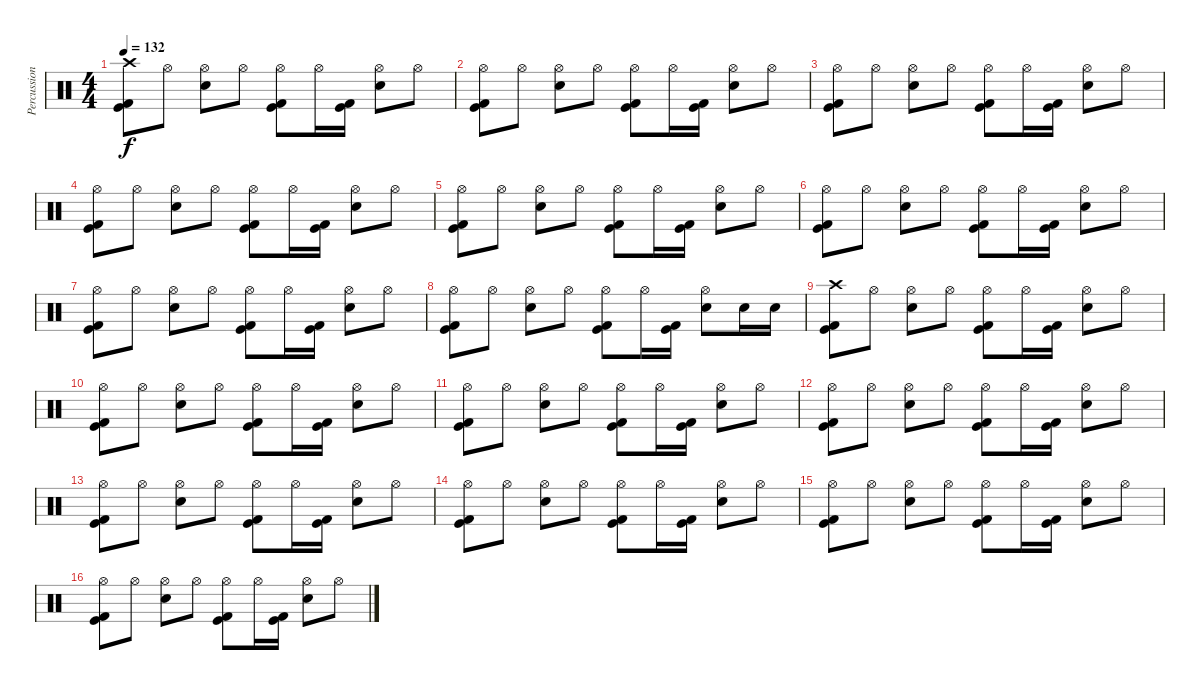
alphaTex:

\track ("Percussion" "Percussion") {instrument percussion}
\staff {score}
\articulation defaults
\ts (4 4)
\tempo 132
\clef neutral
\ks c
("Crash high (hit)" "Kick (hit)" "Kick (hit) 2").8{dy f} "Hi-Hat (open)".8 ("Hi-Hat (open)" "Electric Snare (hit)").8 "Hi-Hat (open)".8 ("Hi-Hat (open)" "Kick (hit)" "Kick (hit) 2").8 "Hi-Hat (open)".16 ("Kick (hit)" "Kick (hit) 2").16 ("Hi-Hat (open)" "Electric Snare (hit)").8 "Hi-Hat (open)".8 |
("Hi-Hat (open)" "Kick (hit)" "Kick (hit) 2").8 "Hi-Hat (open)".8 ("Hi-Hat (open)" "Electric Snare (hit)").8 "Hi-Hat (open)".8 ("Hi-Hat (open)" "Kick (hit)" "Kick (hit) 2").8 "Hi-Hat (open)".16 ("Kick (hit)" "Kick (hit) 2").16 ("Hi-Hat (open)" "Electric Snare (hit)").8 "Hi-Hat (open)".8 |
("Hi-Hat (open)" "Kick (hit)" "Kick (hit) 2").8 "Hi-Hat (open)".8 ("Hi-Hat (open)" "Electric Snare (hit)").8 "Hi-Hat (open)".8 ("Hi-Hat (open)" "Kick (hit)" "Kick (hit) 2").8 "Hi-Hat (open)".16 ("Kick (hit)" "Kick (hit) 2").16 ("Hi-Hat (open)" "Electric Snare (hit)").8 "Hi-Hat (open)".8 |
("Hi-Hat (open)" "Kick (hit)" "Kick (hit) 2").8 "Hi-Hat (open)".8 ("Hi-Hat (open)" "Electric Snare (hit)").8 "Hi-Hat (open)".8 ("Hi-Hat (open)" "Kick (hit)" "Kick (hit) 2").8 "Hi-Hat (open)".16 ("Kick (hit)" "Kick (hit) 2").16 ("Hi-Hat (open)" "Electric Snare (hit)").8 "Hi-Hat (open)".8 |
("Hi-Hat (open)" "Kick (hit)" "Kick (hit) 2").8 "Hi-Hat (open)".8 ("Hi-Hat (open)" "Electric Snare (hit)").8 "Hi-Hat (open)".8 ("Hi-Hat (open)" "Kick (hit)" "Kick (hit) 2").8 "Hi-Hat (open)".16 ("Kick (hit)" "Kick (hit) 2").16 ("Hi-Hat (open)" "Electric Snare (hit)").8 "Hi-Hat (open)".8 |
("Hi-Hat (open)" "Kick (hit)" "Kick (hit) 2").8 "Hi-Hat (open)".8 ("Hi-Hat (open)" "Electric Snare (hit)").8 "Hi-Hat (open)".8 ("Hi-Hat (open)" "Kick (hit)" "Kick (hit) 2").8 "Hi-Hat (open)".16 ("Kick (hit)" "Kick (hit) 2").16 ("Hi-Hat (open)" "Electric Snare (hit)").8 "Hi-Hat (open)".8 |
("Hi-Hat (open)" "Kick (hit)" "Kick (hit) 2").8 "Hi-Hat (open)".8 ("Hi-Hat (open)" "Electric Snare (hit)").8 "Hi-Hat (open)".8 ("Hi-Hat (open)" "Kick (hit)" "Kick (hit) 2").8 "Hi-Hat (open)".16 ("Kick (hit)" "Kick (hit) 2").16 ("Hi-Hat (open)" "Electric Snare (hit)").8 "Hi-Hat (open)".8 |
("Hi-Hat (open)" "Kick (hit)" "Kick (hit) 2").8 "Hi-Hat (open)".8 ("Hi-Hat (open)" "Electric Snare (hit)").8 "Hi-Hat (open)".8 ("Hi-Hat (open)" "Kick (hit)" "Kick (hit) 2").8 "Hi-Hat (open)".16 ("Kick (hit)" "Kick (hit) 2").16 ("Hi-Hat (open)" "Electric Snare (hit)").8 "Electric Snare (hit)".16 "Electric Snare (hit)".16 |
\section ("" "")
("Crash high (hit)" "Kick (hit)" "Kick (hit) 2").8 "Hi-Hat (open)".8 ("Hi-Hat (open)" "Electric Snare (hit)").8 "Hi-Hat (open)".8 ("Hi-Hat (open)" "Kick (hit)" "Kick (hit) 2").8 "Hi-Hat (open)".16 ("Kick (hit)" "Kick (hit) 2").16 ("Hi-Hat (open)" "Electric Snare (hit)").8 "Hi-Hat (open)".8 |
("Hi-Hat (open)" "Kick (hit)" "Kick (hit) 2").8 "Hi-Hat (open)".8 ("Hi-Hat (open)" "Electric Snare (hit)").8 "Hi-Hat (open)".8 ("Hi-Hat (open)" "Kick (hit)" "Kick (hit) 2").8 "Hi-Hat (open)".16 ("Kick (hit)" "Kick (hit) 2").16 ("Hi-Hat (open)" "Electric Snare (hit)").8 "Hi-Hat (open)".8 |
("Hi-Hat (open)" "Kick (hit)" "Kick (hit) 2").8 "Hi-Hat (open)".8 ("Hi-Hat (open)" "Electric Snare (hit)").8 "Hi-Hat (open)".8 ("Hi-Hat (open)" "Kick (hit)" "Kick (hit) 2").8 "Hi-Hat (open)".16 ("Kick (hit)" "Kick (hit) 2").16 ("Hi-Hat (open)" "Electric Snare (hit)").8 "Hi-Hat (open)".8 |
("Hi-Hat (open)" "Kick (hit)" "Kick (hit) 2").8 "Hi-Hat (open)".8 ("Hi-Hat (open)" "Electric Snare (hit)").8 "Hi-Hat (open)".8 ("Hi-Hat (open)" "Kick (hit)" "Kick (hit) 2").8 "Hi-Hat (open)".16 ("Kick (hit)" "Kick (hit) 2").16 ("Hi-Hat (open)" "Electric Snare (hit)").8 "Hi-Hat (open)".8 |
("Hi-Hat (open)" "Kick (hit)" "Kick (hit) 2").8 "Hi-Hat (open)".8 ("Hi-Hat (open)" "Electric Snare (hit)").8 "Hi-Hat (open)".8 ("Hi-Hat (open)" "Kick (hit)" "Kick (hit) 2").8 "Hi-Hat (open)".16 ("Kick (hit)" "Kick (hit) 2").16 ("Hi-Hat (open)" "Electric Snare (hit)").8 "Hi-Hat (open)".8 |
("Hi-Hat (open)" "Kick (hit)" "Kick (hit) 2").8 "Hi-Hat (open)".8 ("Hi-Hat (open)" "Electric Snare (hit)").8 "Hi-Hat (open)".8 ("Hi-Hat (open)" "Kick (hit)" "Kick (hit) 2").8 "Hi-Hat (open)".16 ("Kick (hit)" "Kick (hit) 2").16 ("Hi-Hat (open)" "Electric Snare (hit)").8 "Hi-Hat (open)".8 |
("Hi-Hat (open)" "Kick (hit)" "Kick (hit) 2").8 "Hi-Hat (open)".8 ("Hi-Hat (open)" "Electric Snare (hit)").8 "Hi-Hat (open)".8 ("Hi-Hat (open)" "Kick (hit)" "Kick (hit) 2").8 "Hi-Hat (open)".16 ("Kick (hit)" "Kick (hit) 2").16 ("Hi-Hat (open)" "Electric Snare (hit)").8 "Hi-Hat (open)".8 |
("Hi-Hat (open)" "Kick (hit)" "Kick (hit) 2").8 "Hi-Hat (open)".8 ("Hi-Hat (open)" "Electric Snare (hit)").8 "Hi-Hat (open)".8 ("Hi-Hat (open)" "Kick (hit)" "Kick (hit) 2").8 "Hi-Hat (open)".16 ("Kick (hit)" "Kick (hit) 2").16 ("Hi-Hat (open)" "Electric Snare (hit)").8 "Hi-Hat (open)".8
